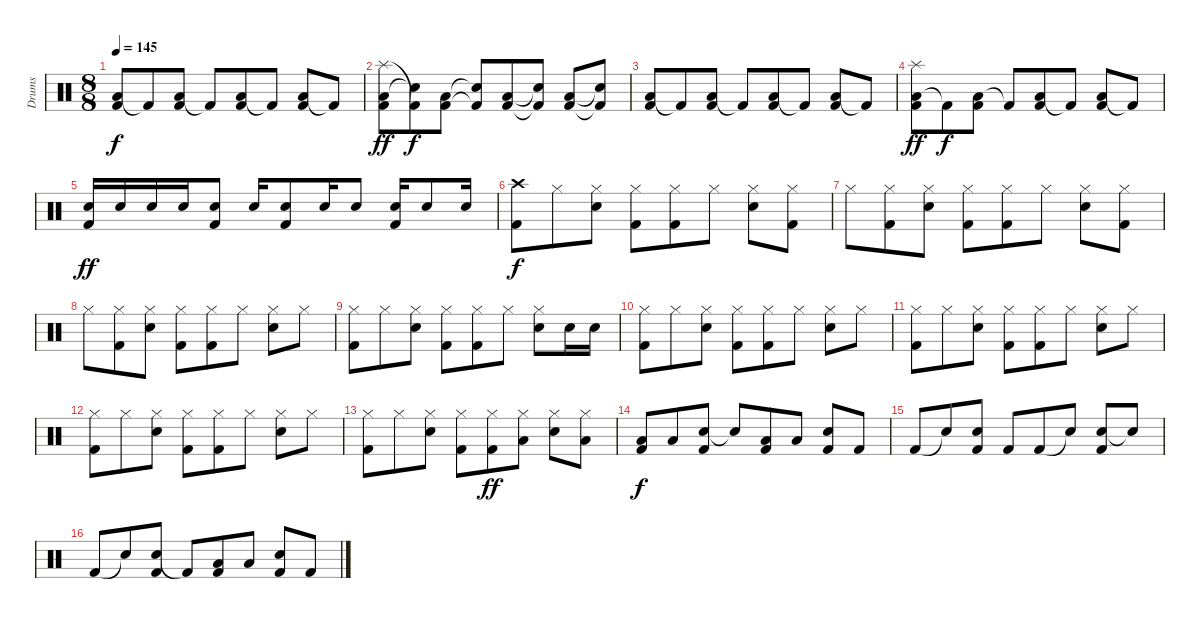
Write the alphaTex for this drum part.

\track ("Drums" "Drums") {instrument percussion}
\staff {score}
\articulation defaults
\ts (8 8)
\tempo 145
\clef neutral
\ks c
("Low Floor Tom (hit)" "Kick (hit) 2").8{dy f} "Kick (hit) 2"{t}.8 ("Low Floor Tom (hit)" "Kick (hit) 2").8 "Kick (hit) 2"{t}.8 ("Low Floor Tom (hit)" "Kick (hit) 2").8 "Kick (hit) 2"{t}.8 ("Low Floor Tom (hit)" "Kick (hit) 2").8 "Kick (hit) 2"{t}.8 |
("Low Floor Tom (hit)" "Splash (hit)" "Kick (hit) 2").8{dy ff} ("Snare (hit)"{t} "Kick (hit) 2"{t}).8{dy f} ("Low Floor Tom (hit)" "Kick (hit) 2").8 ("Snare (hit)"{t} "Kick (hit) 2"{t}).8 ("Low Floor Tom (hit)" "Kick (hit) 2").8 ("Snare (hit)"{t} "Kick (hit) 2"{t}).8 ("Low Floor Tom (hit)" "Kick (hit) 2").8 ("Snare (hit)"{t} "Kick (hit) 2"{t}).8 |
("Low Floor Tom (hit)" "Kick (hit) 2").8 "Kick (hit) 2"{t}.8 ("Low Floor Tom (hit)" "Kick (hit) 2").8 "Kick (hit) 2"{t}.8 ("Low Floor Tom (hit)" "Kick (hit) 2").8 "Kick (hit) 2"{t}.8 ("Low Floor Tom (hit)" "Kick (hit) 2").8 "Kick (hit) 2"{t}.8 |
("Low Floor Tom (hit)" "Splash (hit)" "Kick (hit) 2").8{dy ff} "Kick (hit) 2"{t}.8{dy f} ("Low Floor Tom (hit)" "Kick (hit) 2").8 "Kick (hit) 2"{t}.8 ("Low Floor Tom (hit)" "Kick (hit) 2").8 "Kick (hit) 2"{t}.8 ("Low Floor Tom (hit)" "Kick (hit) 2").8 "Kick (hit) 2"{t}.8 |
("Snare (hit) 2" "Kick (hit) 2").16{dy ff} "Snare (hit) 2".16 "Snare (hit) 2".16 "Snare (hit) 2".16 ("Snare (hit) 2" "Kick (hit) 2").8 "Snare (hit) 2".16 ("Snare (hit) 2" "Kick (hit) 2").8 "Snare (hit) 2".16 "Snare (hit) 2".8 ("Snare (hit) 2" "Kick (hit) 2").16 "Snare (hit) 2".8 "Snare (hit) 2".16 |
("Kick (hit) 2" "Crash high (hit)").8{dy f} "Hi-Hat (closed)".8 ("Snare (hit) 2" "Hi-Hat (closed)").8 ("Kick (hit) 2" "Hi-Hat (closed)").8 ("Kick (hit) 2" "Hi-Hat (closed)").8 "Hi-Hat (closed)".8 ("Snare (hit) 2" "Hi-Hat (closed)").8 ("Kick (hit) 2" "Hi-Hat (closed)").8 |
"Hi-Hat (closed)".8 ("Kick (hit) 2" "Hi-Hat (closed)").8 ("Snare (hit) 2" "Hi-Hat (closed)").8 ("Kick (hit) 2" "Hi-Hat (closed)").8 ("Kick (hit) 2" "Hi-Hat (closed)").8 "Hi-Hat (closed)".8 ("Snare (hit) 2" "Hi-Hat (closed)").8 ("Kick (hit) 2" "Hi-Hat (closed)").8 |
"Hi-Hat (closed)".8 ("Kick (hit) 2" "Hi-Hat (closed)").8 ("Snare (hit) 2" "Hi-Hat (closed)").8 ("Kick (hit) 2" "Hi-Hat (closed)").8 ("Kick (hit) 2" "Hi-Hat (closed)").8 "Hi-Hat (closed)".8 ("Snare (hit) 2" "Hi-Hat (closed)").8 "Hi-Hat (closed)".8 |
("Kick (hit) 2" "Hi-Hat (closed)").8 "Hi-Hat (closed)".8 ("Snare (hit) 2" "Hi-Hat (closed)").8 ("Kick (hit) 2" "Hi-Hat (closed)").8 ("Kick (hit) 2" "Hi-Hat (closed)").8 "Hi-Hat (closed)".8 ("Snare (hit) 2" "Hi-Hat (closed)").8 "Snare (hit) 2".16 "Snare (hit) 2".16 |
("Kick (hit) 2" "Hi-Hat (closed)").8 "Hi-Hat (closed)".8 ("Snare (hit) 2" "Hi-Hat (closed)").8 ("Kick (hit) 2" "Hi-Hat (closed)").8 ("Kick (hit) 2" "Hi-Hat (closed)").8 "Hi-Hat (closed)".8 ("Snare (hit) 2" "Hi-Hat (closed)").8 "Hi-Hat (closed)".8 |
("Kick (hit) 2" "Hi-Hat (closed)").8 "Hi-Hat (closed)".8 ("Snare (hit) 2" "Hi-Hat (closed)").8 ("Kick (hit) 2" "Hi-Hat (closed)").8 ("Kick (hit) 2" "Hi-Hat (closed)").8 "Hi-Hat (closed)".8 ("Snare (hit) 2" "Hi-Hat (closed)").8 "Hi-Hat (closed)".8 |
("Kick (hit) 2" "Hi-Hat (closed)").8 "Hi-Hat (closed)".8 ("Snare (hit) 2" "Hi-Hat (closed)").8 ("Kick (hit) 2" "Hi-Hat (closed)").8 ("Kick (hit) 2" "Hi-Hat (closed)").8 "Hi-Hat (closed)".8 ("Snare (hit) 2" "Hi-Hat (closed)").8 "Hi-Hat (closed)".8 |
("Kick (hit) 2" "Hi-Hat (closed)").8 "Hi-Hat (closed)".8 ("Snare (hit) 2" "Hi-Hat (closed)").8 ("Kick (hit) 2" "Hi-Hat (closed)").8 ("Kick (hit) 2" "Hi-Hat (closed)").8{dy ff} ("Low Floor Tom (hit)" "Hi-Hat (closed)").8 ("Snare (hit) 2" "Hi-Hat (closed)").8 ("Low Floor Tom (hit)" "Hi-Hat (closed)").8 |
("Low Floor Tom (hit)" "Kick (hit) 2").8{dy f} "Low Floor Tom (hit)".8 ("Snare (hit) 2" "Kick (hit) 2").8 "Snare (hit)"{t}.8 ("Low Floor Tom (hit)" "Kick (hit) 2").8 "Low Floor Tom (hit)".8 ("Snare (hit) 2" "Kick (hit) 2").8 "Kick (hit) 2".8 |
"Kick (hit) 2".8 "Snare (hit)"{t}.8 ("Snare (hit) 2" "Kick (hit) 2").8 "Kick (hit) 2".8 "Kick (hit) 2".8 "Snare (hit)"{t}.8 ("Snare (hit) 2" "Kick (hit) 2").8 "Snare (hit)"{t}.8 |
"Kick (hit) 2".8 "Snare (hit)"{t}.8 ("Snare (hit) 2" "Kick (hit) 2").8 "Kick (hit) 2"{t}.8 ("Low Floor Tom (hit)" "Kick (hit) 2").8 "Low Floor Tom (hit)".8 ("Snare (hit) 2" "Kick (hit) 2").8 "Kick (hit) 2".8
